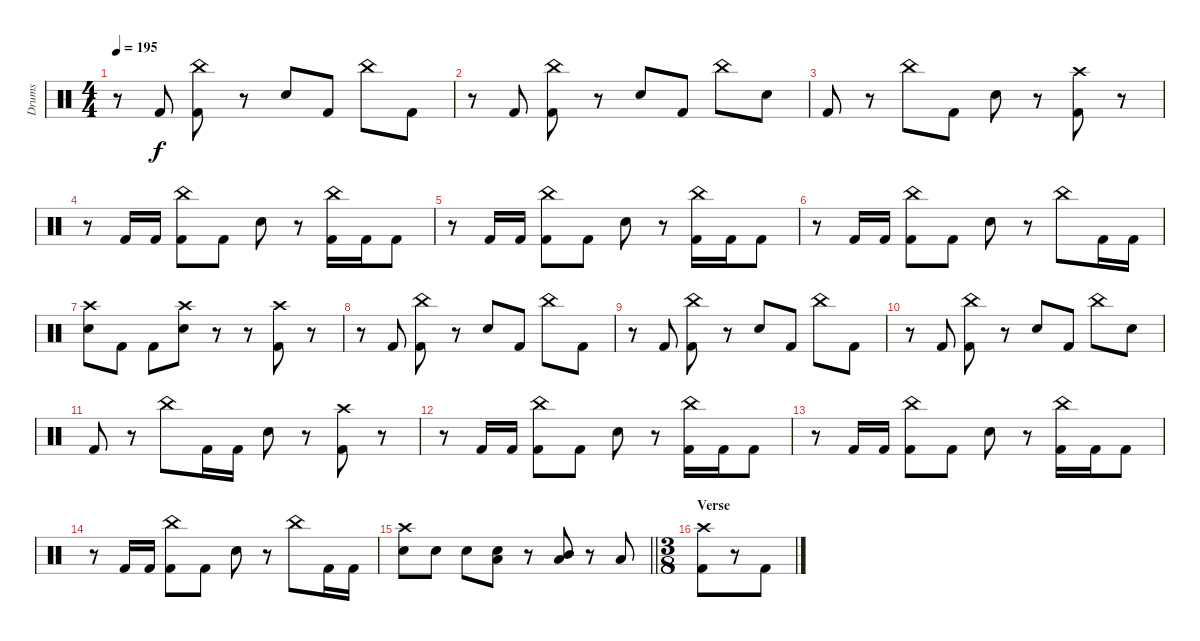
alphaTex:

\track ("Drums" "Drums") {instrument percussion}
\staff {score}
\articulation defaults
\ts (4 4)
\tempo 195
\clef neutral
\ks c
r.8{dy f} "Kick (hit) 2".8 ("China (hit)" "Kick (hit) 2").8 r.8 "Snare (hit) 2".8 "Kick (hit) 2".8 "China (hit)".8 "Kick (hit) 2".8 |
r.8 "Kick (hit) 2".8 ("China (hit)" "Kick (hit) 2").8 r.8 "Snare (hit) 2".8 "Kick (hit) 2".8 "China (hit)".8 "Snare (hit) 2".8 |
"Kick (hit) 2".8 r.8 "China (hit)".8 "Kick (hit) 2".8 "Snare (hit) 2".8 r.8 ("Crash high (hit)" "Kick (hit) 2").8 r.8 |
r.8 "Kick (hit) 2".16 "Kick (hit) 2".16 ("China (hit)" "Kick (hit) 2").8 "Kick (hit) 2".8 "Snare (hit) 2".8 r.8 ("China (hit)" "Kick (hit) 2").16 "Kick (hit) 2".16 "Kick (hit) 2".8 |
r.8 "Kick (hit) 2".16 "Kick (hit) 2".16 ("China (hit)" "Kick (hit) 2").8 "Kick (hit) 2".8 "Snare (hit) 2".8 r.8 ("China (hit)" "Kick (hit) 2").16 "Kick (hit) 2".16 "Kick (hit) 2".8 |
r.8 "Kick (hit) 2".16 "Kick (hit) 2".16 ("China (hit)" "Kick (hit) 2").8 "Kick (hit) 2".8 "Snare (hit) 2".8 r.8 "China (hit)".8 "Kick (hit) 2".16 "Kick (hit) 2".16 |
("Crash high (hit)" "Snare (hit) 2").8 "Kick (hit) 2".8 "Kick (hit) 2".8 ("Crash high (hit)" "Snare (hit) 2").8 r.8 r.8 ("Crash high (hit)" "Kick (hit) 2").8 r.8 |
r.8 "Kick (hit) 2".8 ("China (hit)" "Kick (hit) 2").8 r.8 "Snare (hit) 2".8 "Kick (hit) 2".8 "China (hit)".8 "Kick (hit) 2".8 |
r.8 "Kick (hit) 2".8 ("China (hit)" "Kick (hit) 2").8 r.8 "Snare (hit) 2".8 "Kick (hit) 2".8 "China (hit)".8 "Kick (hit) 2".8 |
r.8 "Kick (hit) 2".8 ("China (hit)" "Kick (hit) 2").8 r.8 "Snare (hit) 2".8 "Kick (hit) 2".8 "China (hit)".8 "Snare (hit) 2".8 |
"Kick (hit) 2".8 r.8 "China (hit)".8 "Kick (hit) 2".16 "Kick (hit) 2".16 "Snare (hit) 2".8 r.8 ("Crash high (hit)" "Kick (hit) 2").8 r.8 |
r.8 "Kick (hit) 2".16 "Kick (hit) 2".16 ("China (hit)" "Kick (hit) 2").8 "Kick (hit) 2".8 "Snare (hit) 2".8 r.8 ("China (hit)" "Kick (hit) 2").16 "Kick (hit) 2".16 "Kick (hit) 2".8 |
r.8 "Kick (hit) 2".16 "Kick (hit) 2".16 ("China (hit)" "Kick (hit) 2").8 "Kick (hit) 2".8 "Snare (hit) 2".8 r.8 ("China (hit)" "Kick (hit) 2").16 "Kick (hit) 2".16 "Kick (hit) 2".8 |
r.8 "Kick (hit) 2".16 "Kick (hit) 2".16 ("China (hit)" "Kick (hit) 2").8 "Kick (hit) 2".8 "Snare (hit) 2".8 r.8 "China (hit)".8 "Kick (hit) 2".16 "Kick (hit) 2".16 |
\barLineRight lightlight
("Crash high (hit)" "Snare (hit) 2").8 "Snare (hit) 2".8 "Snare (hit) 2".8 ("Low Floor Tom (hit)" "Snare (hit) 2").8 r.8 ("Mid Tom (hit)" "Low Floor Tom (hit)").8 r.8 "Low Floor Tom (hit)".8 |
\ts (3 8)
\section ("" "Verse")
("Crash high (hit)" "Kick (hit) 2").8 r.8 "Kick (hit) 2".8
